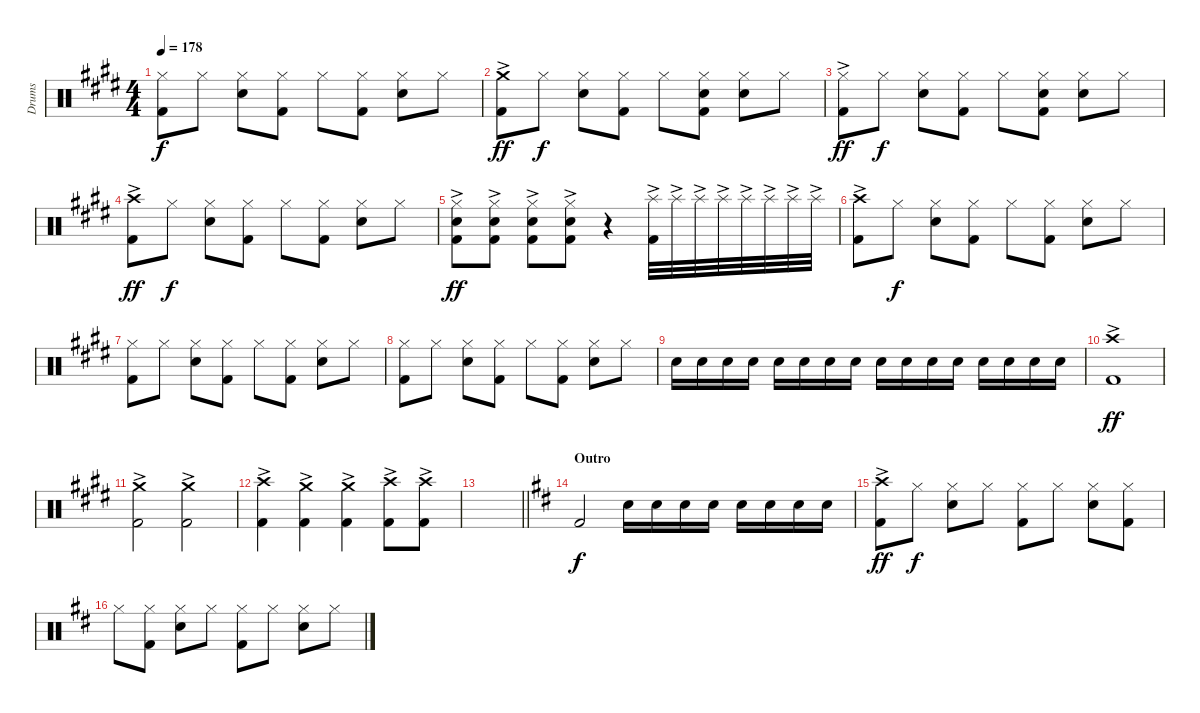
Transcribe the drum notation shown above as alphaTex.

\track ("Drums" "Drums") {instrument percussion}
\staff {score}
\articulation defaults
\ts (4 4)
\tempo 178
\clef neutral
\ks e
("Hi-Hat (closed)" "Kick (hit) 2").8{dy f} "Hi-Hat (closed)".8 ("Hi-Hat (closed)" "Electric Snare (hit)").8 ("Hi-Hat (closed)" "Kick (hit) 2").8 "Hi-Hat (closed)".8 ("Hi-Hat (closed)" "Kick (hit) 2").8 ("Hi-Hat (closed)" "Electric Snare (hit)").8 "Hi-Hat (closed)".8 |
("Crash medium (hit)"{ac} "Kick (hit) 2").8{dy ff} "Hi-Hat (closed)".8{dy f} ("Hi-Hat (closed)" "Electric Snare (hit)").8 ("Hi-Hat (closed)" "Kick (hit) 2").8 "Hi-Hat (closed)".8 ("Hi-Hat (closed)" "Electric Snare (hit)" "Kick (hit) 2").8 ("Hi-Hat (closed)" "Electric Snare (hit)").8 "Hi-Hat (closed)".8 |
("Hi-Hat (closed)"{ac} "Kick (hit) 2").8{dy ff} "Hi-Hat (closed)".8{dy f} ("Hi-Hat (closed)" "Electric Snare (hit)").8 ("Hi-Hat (closed)" "Kick (hit) 2").8 "Hi-Hat (closed)".8 ("Hi-Hat (closed)" "Electric Snare (hit)" "Kick (hit) 2").8 ("Hi-Hat (closed)" "Electric Snare (hit)").8 "Hi-Hat (closed)".8 |
("Crash high (hit)"{ac} "Kick (hit) 2").8{dy ff} "Hi-Hat (closed)".8{dy f} ("Hi-Hat (closed)" "Electric Snare (hit)").8 ("Hi-Hat (closed)" "Kick (hit) 2").8 "Hi-Hat (closed)".8 ("Hi-Hat (closed)" "Kick (hit) 2").8 ("Hi-Hat (closed)" "Electric Snare (hit)").8 "Hi-Hat (closed)".8 |
("Hi-Hat (closed)"{ac} "Electric Snare (hit)"{ac} "Kick (hit) 2"{ac}).8{dy ff} ("Hi-Hat (closed)"{ac} "Electric Snare (hit)"{ac} "Kick (hit) 2"{ac}).8 ("Hi-Hat (closed)"{ac} "Electric Snare (hit)"{ac} "Kick (hit) 2"{ac}).8 ("Hi-Hat (closed)"{ac} "Electric Snare (hit)"{ac} "Kick (hit) 2"{ac}).8 r.4{volume 8} ("Splash (hit)"{ac} "Kick (hit) 2").32{volume 16} "Splash (hit)"{ac}.32 "Splash (hit)"{ac}.32 "Splash (hit)"{ac}.32 "Splash (hit)"{ac}.32 "Splash (hit)"{ac}.32 "Splash (hit)"{ac}.32 "Splash (hit)"{ac}.32 |
("Crash high (hit)"{ac} "Kick (hit) 2").8 "Hi-Hat (closed)".8{dy f} ("Hi-Hat (closed)" "Electric Snare (hit)").8 ("Hi-Hat (closed)" "Kick (hit) 2").8 "Hi-Hat (closed)".8 ("Hi-Hat (closed)" "Kick (hit) 2").8 ("Hi-Hat (closed)" "Electric Snare (hit)").8 "Hi-Hat (closed)".8 |
("Hi-Hat (closed)" "Kick (hit) 2").8 "Hi-Hat (closed)".8 ("Hi-Hat (closed)" "Electric Snare (hit)").8 ("Hi-Hat (closed)" "Kick (hit) 2").8 "Hi-Hat (closed)".8 ("Hi-Hat (closed)" "Kick (hit) 2").8 ("Hi-Hat (closed)" "Electric Snare (hit)").8 "Hi-Hat (closed)".8 |
("Hi-Hat (closed)" "Kick (hit) 2").8 "Hi-Hat (closed)".8 ("Hi-Hat (closed)" "Electric Snare (hit)").8 ("Hi-Hat (closed)" "Kick (hit) 2").8 "Hi-Hat (closed)".8 ("Hi-Hat (closed)" "Kick (hit) 2").8 ("Hi-Hat (closed)" "Electric Snare (hit)").8 "Hi-Hat (closed)".8 |
"Electric Snare (hit)".16{volume 6} "Electric Snare (hit)".16{volume 16} "Electric Snare (hit)".16 "Electric Snare (hit)".16 "Electric Snare (hit)".16 "Electric Snare (hit)".16 "Electric Snare (hit)".16 "Electric Snare (hit)".16 "Electric Snare (hit)".16 "Electric Snare (hit)".16 "Electric Snare (hit)".16 "Electric Snare (hit)".16 "Electric Snare (hit)".16 "Electric Snare (hit)".16 "Electric Snare (hit)".16 "Electric Snare (hit)".16 |
("Crash high (hit)"{ac} "Kick (hit) 2").1{dy ff} |
("Crash medium (hit)"{ac} "Kick (hit) 2").2 ("Crash medium (hit)"{ac} "Kick (hit) 2").2 |
("Crash high (hit)"{ac} "Kick (hit) 2"{ac}).4 ("Crash medium (hit)"{ac} "Kick (hit) 2"{ac}).4 ("Crash medium (hit)"{ac} "Kick (hit) 2"{ac}).4 ("Crash high (hit)"{ac} "Kick (hit) 2"{ac}).8 ("Crash high (hit)"{ac} "Kick (hit) 2"{ac}).8 |
\barLineRight lightlight
|
\section ("" "Outro")
\ks d "Kick (hit) 2".2{dy f} "Electric Snare (hit)".16{volume 6} "Electric Snare (hit)".16{volume 16} "Electric Snare (hit)".16 "Electric Snare (hit)".16 "Electric Snare (hit)".16 "Electric Snare (hit)".16 "Electric Snare (hit)".16 "Electric Snare (hit)".16
|
("Crash high (hit)"{ac} "Kick (hit) 2").8{dy ff} "Hi-Hat (closed)".8{dy f} ("Hi-Hat (closed)" "Electric Snare (hit)").8 "Hi-Hat (closed)".8 ("Hi-Hat (closed)" "Kick (hit) 2").8 "Hi-Hat (closed)".8 ("Hi-Hat (closed)" "Electric Snare (hit)").8 ("Hi-Hat (closed)" "Kick (hit) 2").8 |
"Hi-Hat (closed)".8 ("Hi-Hat (closed)" "Kick (hit) 2").8 ("Hi-Hat (closed)" "Electric Snare (hit)").8 "Hi-Hat (closed)".8 ("Hi-Hat (closed)" "Kick (hit) 2").8 "Hi-Hat (closed)".8 ("Hi-Hat (closed)" "Electric Snare (hit)").8 "Hi-Hat (closed)".8
